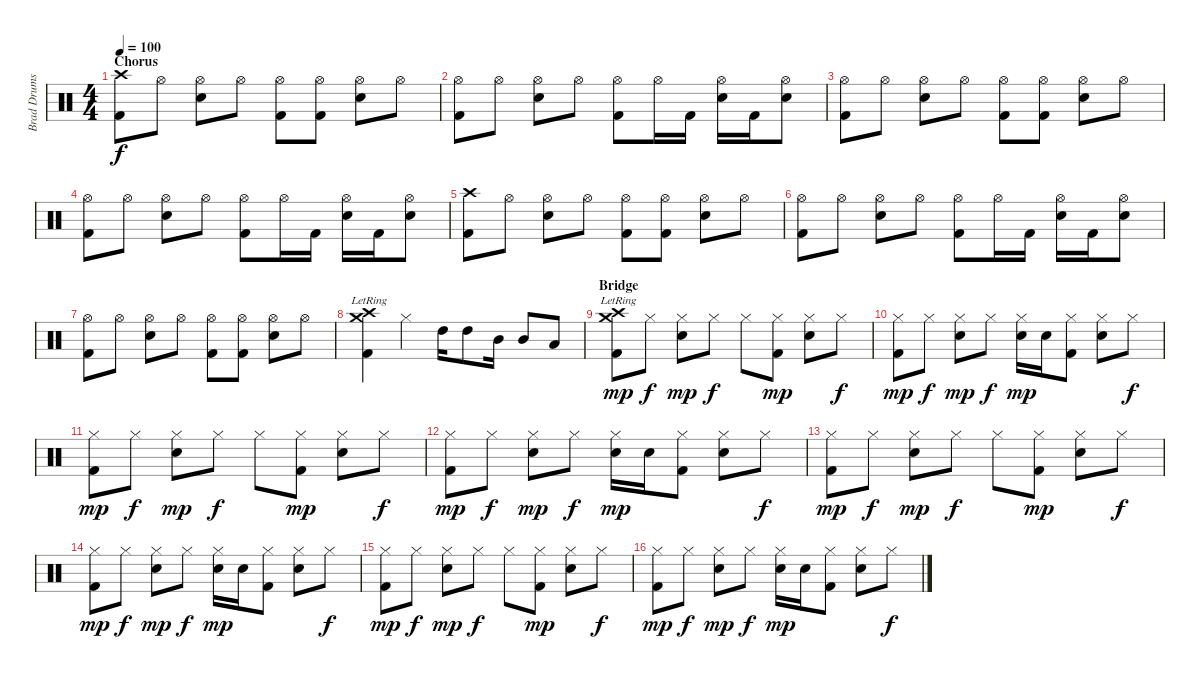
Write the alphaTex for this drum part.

\track ("Brad Drums" "Brad Drums") {instrument percussion}
\staff {score}
\articulation defaults
\ts (4 4)
\section ("" "Chorus")
\tempo 100
\clef neutral
\ks c
("Crash high (hit)" "Kick (hit) 2").8{dy f} "Hi-Hat (open)".8 ("Hi-Hat (open)" "Electric Snare (hit)").8 "Hi-Hat (open)".8 ("Hi-Hat (open)" "Kick (hit) 2").8 ("Hi-Hat (open)" "Kick (hit) 2").8 ("Hi-Hat (open)" "Electric Snare (hit)").8 "Hi-Hat (open)".8 |
("Hi-Hat (open)" "Kick (hit) 2").8 "Hi-Hat (open)".8 ("Hi-Hat (open)" "Electric Snare (hit)").8 "Hi-Hat (open)".8 ("Hi-Hat (open)" "Kick (hit) 2").8 "Hi-Hat (open)".16 "Kick (hit) 2".16 ("Hi-Hat (open)" "Electric Snare (hit)").16 "Kick (hit) 2".16 ("Hi-Hat (open)" "Electric Snare (hit)").8 |
("Hi-Hat (open)" "Kick (hit) 2").8 "Hi-Hat (open)".8 ("Hi-Hat (open)" "Electric Snare (hit)").8 "Hi-Hat (open)".8 ("Hi-Hat (open)" "Kick (hit) 2").8 ("Hi-Hat (open)" "Kick (hit) 2").8 ("Hi-Hat (open)" "Electric Snare (hit)").8 "Hi-Hat (open)".8 |
("Hi-Hat (open)" "Kick (hit) 2").8 "Hi-Hat (open)".8 ("Hi-Hat (open)" "Electric Snare (hit)").8 "Hi-Hat (open)".8 ("Hi-Hat (open)" "Kick (hit) 2").8 "Hi-Hat (open)".16 "Kick (hit) 2".16 ("Hi-Hat (open)" "Electric Snare (hit)").16 "Kick (hit) 2".16 ("Hi-Hat (open)" "Electric Snare (hit)").8 |
("Crash high (hit)" "Kick (hit) 2").8 "Hi-Hat (open)".8 ("Hi-Hat (open)" "Electric Snare (hit)").8 "Hi-Hat (open)".8 ("Hi-Hat (open)" "Kick (hit) 2").8 ("Hi-Hat (open)" "Kick (hit) 2").8 ("Hi-Hat (open)" "Electric Snare (hit)").8 "Hi-Hat (open)".8 |
("Hi-Hat (open)" "Kick (hit) 2").8 "Hi-Hat (open)".8 ("Hi-Hat (open)" "Electric Snare (hit)").8 "Hi-Hat (open)".8 ("Hi-Hat (open)" "Kick (hit) 2").8 "Hi-Hat (open)".16 "Kick (hit) 2".16 ("Hi-Hat (open)" "Electric Snare (hit)").16 "Kick (hit) 2".16 ("Hi-Hat (open)" "Electric Snare (hit)").8 |
("Hi-Hat (open)" "Kick (hit) 2").8 "Hi-Hat (open)".8 ("Hi-Hat (open)" "Electric Snare (hit)").8 "Hi-Hat (open)".8 ("Hi-Hat (open)" "Kick (hit) 2").8 ("Hi-Hat (open)" "Kick (hit) 2").8 ("Hi-Hat (open)" "Electric Snare (hit)").8 "Hi-Hat (open)".8 |
("Crash high (hit)"{lr} "Crash medium (hit)"{lr} "Kick (hit) 2").4 "Hi-Hat (closed)".4 "High Tom (hit)".16 "High Tom (hit)".8 "Mid Tom (hit)".16 "Mid Tom (hit)".8 "Low Tom (hit)".8 |
\section ("" "Bridge")
("Crash high (hit)"{lr} "Crash medium (hit)"{lr} "Kick (hit) 2").8{dy mp} "Hi-Hat (closed)".8{dy f} ("Hi-Hat (closed)" "Snare (hit) 2").8{dy mp} "Hi-Hat (closed)".8{dy f} "Hi-Hat (closed)".8 ("Hi-Hat (closed)" "Kick (hit) 2").8{dy mp} ("Hi-Hat (closed)" "Snare (hit) 2").8 "Hi-Hat (closed)".8{dy f} |
("Hi-Hat (closed)" "Kick (hit) 2").8{dy mp} "Hi-Hat (closed)".8{dy f} ("Hi-Hat (closed)" "Snare (hit) 2").8{dy mp} "Hi-Hat (closed)".8{dy f} ("Hi-Hat (closed)" "Snare (hit) 2").16{dy mp} "Snare (hit) 2".16 ("Hi-Hat (closed)" "Kick (hit) 2").8 ("Hi-Hat (closed)" "Snare (hit) 2").8 "Hi-Hat (closed)".8{dy f} |
("Hi-Hat (closed)" "Kick (hit) 2").8{dy mp} "Hi-Hat (closed)".8{dy f} ("Hi-Hat (closed)" "Snare (hit) 2").8{dy mp} "Hi-Hat (closed)".8{dy f} "Hi-Hat (closed)".8 ("Hi-Hat (closed)" "Kick (hit) 2").8{dy mp} ("Hi-Hat (closed)" "Snare (hit) 2").8 "Hi-Hat (closed)".8{dy f} |
("Hi-Hat (closed)" "Kick (hit) 2").8{dy mp} "Hi-Hat (closed)".8{dy f} ("Hi-Hat (closed)" "Snare (hit) 2").8{dy mp} "Hi-Hat (closed)".8{dy f} ("Hi-Hat (closed)" "Snare (hit) 2").16{dy mp} "Snare (hit) 2".16 ("Hi-Hat (closed)" "Kick (hit) 2").8 ("Hi-Hat (closed)" "Snare (hit) 2").8 "Hi-Hat (closed)".8{dy f} |
("Hi-Hat (closed)" "Kick (hit) 2").8{dy mp} "Hi-Hat (closed)".8{dy f} ("Hi-Hat (closed)" "Snare (hit) 2").8{dy mp} "Hi-Hat (closed)".8{dy f} "Hi-Hat (closed)".8 ("Hi-Hat (closed)" "Kick (hit) 2").8{dy mp} ("Hi-Hat (closed)" "Snare (hit) 2").8 "Hi-Hat (closed)".8{dy f} |
("Hi-Hat (closed)" "Kick (hit) 2").8{dy mp} "Hi-Hat (closed)".8{dy f} ("Hi-Hat (closed)" "Snare (hit) 2").8{dy mp} "Hi-Hat (closed)".8{dy f} ("Hi-Hat (closed)" "Snare (hit) 2").16{dy mp} "Snare (hit) 2".16 ("Hi-Hat (closed)" "Kick (hit) 2").8 ("Hi-Hat (closed)" "Snare (hit) 2").8 "Hi-Hat (closed)".8{dy f} |
("Hi-Hat (closed)" "Kick (hit) 2").8{dy mp} "Hi-Hat (closed)".8{dy f} ("Hi-Hat (closed)" "Snare (hit) 2").8{dy mp} "Hi-Hat (closed)".8{dy f} "Hi-Hat (closed)".8 ("Hi-Hat (closed)" "Kick (hit) 2").8{dy mp} ("Hi-Hat (closed)" "Snare (hit) 2").8 "Hi-Hat (closed)".8{dy f} |
("Hi-Hat (closed)" "Kick (hit) 2").8{dy mp} "Hi-Hat (closed)".8{dy f} ("Hi-Hat (closed)" "Snare (hit) 2").8{dy mp} "Hi-Hat (closed)".8{dy f} ("Hi-Hat (closed)" "Snare (hit) 2").16{dy mp} "Snare (hit) 2".16 ("Hi-Hat (closed)" "Kick (hit) 2").8 ("Hi-Hat (closed)" "Snare (hit) 2").8 "Hi-Hat (closed)".8{dy f}
